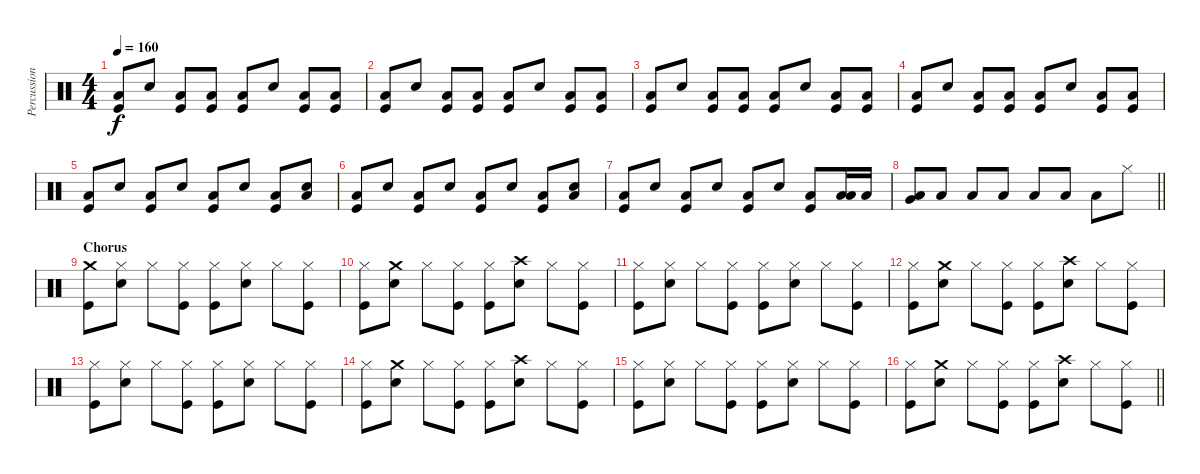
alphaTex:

\track ("Percussion" "Percussion") {instrument percussion}
\staff {score}
\articulation defaults
\ts (4 4)
\tempo 160
\clef neutral
\ks c
("Low Floor Tom (hit)" "Kick (hit)").8{dy f} "Electric Snare (hit)".8 ("Low Floor Tom (hit)" "Kick (hit)").8 ("Low Floor Tom (hit)" "Kick (hit)").8 ("Low Floor Tom (hit)" "Kick (hit)").8 "Electric Snare (hit)".8 ("Low Floor Tom (hit)" "Kick (hit)").8 ("Low Floor Tom (hit)" "Kick (hit)").8 |
("Low Floor Tom (hit)" "Kick (hit)").8 "Electric Snare (hit)".8 ("Low Floor Tom (hit)" "Kick (hit)").8 ("Low Floor Tom (hit)" "Kick (hit)").8 ("Low Floor Tom (hit)" "Kick (hit)").8 "Electric Snare (hit)".8 ("Low Floor Tom (hit)" "Kick (hit)").8 ("Low Floor Tom (hit)" "Kick (hit)").8 |
("Low Floor Tom (hit)" "Kick (hit)").8 "Electric Snare (hit)".8 ("Low Floor Tom (hit)" "Kick (hit)").8 ("Low Floor Tom (hit)" "Kick (hit)").8 ("Low Floor Tom (hit)" "Kick (hit)").8 "Electric Snare (hit)".8 ("Low Floor Tom (hit)" "Kick (hit)").8 ("Low Floor Tom (hit)" "Kick (hit)").8 |
("Low Floor Tom (hit)" "Kick (hit)").8 "Electric Snare (hit)".8 ("Low Floor Tom (hit)" "Kick (hit)").8 ("Low Floor Tom (hit)" "Kick (hit)").8 ("Low Floor Tom (hit)" "Kick (hit)").8 "Electric Snare (hit)".8 ("Low Floor Tom (hit)" "Kick (hit)").8 ("Low Floor Tom (hit)" "Kick (hit)").8 |
("Low Floor Tom (hit)" "Kick (hit)").8 "Electric Snare (hit)".8 ("Low Floor Tom (hit)" "Kick (hit)").8 "Electric Snare (hit)".8 ("Low Floor Tom (hit)" "Kick (hit)").8 "Electric Snare (hit)".8 ("Low Floor Tom (hit)" "Kick (hit)").8 ("Low Floor Tom (hit)" "Electric Snare (hit)").8 |
("Low Floor Tom (hit)" "Kick (hit)").8 "Electric Snare (hit)".8 ("Low Floor Tom (hit)" "Kick (hit)").8 "Electric Snare (hit)".8 ("Low Floor Tom (hit)" "Kick (hit)").8 "Electric Snare (hit)".8 ("Low Floor Tom (hit)" "Kick (hit)").8 ("Low Floor Tom (hit)" "Electric Snare (hit)").8 |
("Low Floor Tom (hit)" "Kick (hit)").8 "Electric Snare (hit)".8 ("Low Floor Tom (hit)" "Kick (hit)").8 "Electric Snare (hit)".8 ("Low Floor Tom (hit)" "Kick (hit)").8 "Electric Snare (hit)".8 ("Low Floor Tom (hit)" "Kick (hit)").8 ("Low Tom (hit)" "Low Floor Tom (hit)").16 "Low Tom (hit)".16 |
\barLineRight lightlight
("Very Low Tom (hit)" "Low Floor Tom (hit)").8 "Low Floor Tom (hit)".8 "Low Floor Tom (hit)".8 "Low Floor Tom (hit)".8 "Low Floor Tom (hit)".8 "Low Floor Tom (hit)".8 "Low Floor Tom (hit)".8 "Hi-Hat (closed)".8 |
\section ("" "Chorus")
("Crash medium (hit)" "Kick (hit)").8 ("Hi-Hat (closed)" "Electric Snare (hit)").8 "Hi-Hat (closed)".8 ("Hi-Hat (closed)" "Kick (hit)").8 ("Hi-Hat (closed)" "Kick (hit)").8 ("Hi-Hat (closed)" "Electric Snare (hit)").8 "Hi-Hat (closed)".8 ("Hi-Hat (closed)" "Kick (hit)").8 |
("Hi-Hat (closed)" "Kick (hit)").8 ("Crash medium (hit)" "Electric Snare (hit)").8 "Hi-Hat (closed)".8 ("Hi-Hat (closed)" "Kick (hit)").8 ("Hi-Hat (closed)" "Kick (hit)").8 ("Crash high (hit)" "Electric Snare (hit)").8 "Hi-Hat (closed)".8 ("Hi-Hat (closed)" "Kick (hit)").8 |
("Hi-Hat (closed)" "Kick (hit)").8 ("Hi-Hat (closed)" "Electric Snare (hit)").8 "Hi-Hat (closed)".8 ("Hi-Hat (closed)" "Kick (hit)").8 ("Hi-Hat (closed)" "Kick (hit)").8 ("Hi-Hat (closed)" "Electric Snare (hit)").8 "Hi-Hat (closed)".8 ("Hi-Hat (closed)" "Kick (hit)").8 |
("Hi-Hat (closed)" "Kick (hit)").8 ("Crash medium (hit)" "Electric Snare (hit)").8 "Hi-Hat (closed)".8 ("Hi-Hat (closed)" "Kick (hit)").8 ("Hi-Hat (closed)" "Kick (hit)").8 ("Crash high (hit)" "Electric Snare (hit)").8 "Hi-Hat (closed)".8 ("Hi-Hat (closed)" "Kick (hit)").8 |
("Hi-Hat (closed)" "Kick (hit)").8 ("Hi-Hat (closed)" "Electric Snare (hit)").8 "Hi-Hat (closed)".8 ("Hi-Hat (closed)" "Kick (hit)").8 ("Hi-Hat (closed)" "Kick (hit)").8 ("Hi-Hat (closed)" "Electric Snare (hit)").8 "Hi-Hat (closed)".8 ("Hi-Hat (closed)" "Kick (hit)").8 |
("Hi-Hat (closed)" "Kick (hit)").8 ("Crash medium (hit)" "Electric Snare (hit)").8 "Hi-Hat (closed)".8 ("Hi-Hat (closed)" "Kick (hit)").8 ("Hi-Hat (closed)" "Kick (hit)").8 ("Crash high (hit)" "Electric Snare (hit)").8 "Hi-Hat (closed)".8 ("Hi-Hat (closed)" "Kick (hit)").8 |
("Hi-Hat (closed)" "Kick (hit)").8 ("Hi-Hat (closed)" "Electric Snare (hit)").8 "Hi-Hat (closed)".8 ("Hi-Hat (closed)" "Kick (hit)").8 ("Hi-Hat (closed)" "Kick (hit)").8 ("Hi-Hat (closed)" "Electric Snare (hit)").8 "Hi-Hat (closed)".8 ("Hi-Hat (closed)" "Kick (hit)").8 |
\barLineRight lightlight
("Hi-Hat (closed)" "Kick (hit)").8 ("Crash medium (hit)" "Electric Snare (hit)").8 "Hi-Hat (closed)".8 ("Hi-Hat (closed)" "Kick (hit)").8 ("Hi-Hat (closed)" "Kick (hit)").8 ("Crash high (hit)" "Electric Snare (hit)").8 "Hi-Hat (closed)".8 ("Hi-Hat (closed)" "Kick (hit)").8
